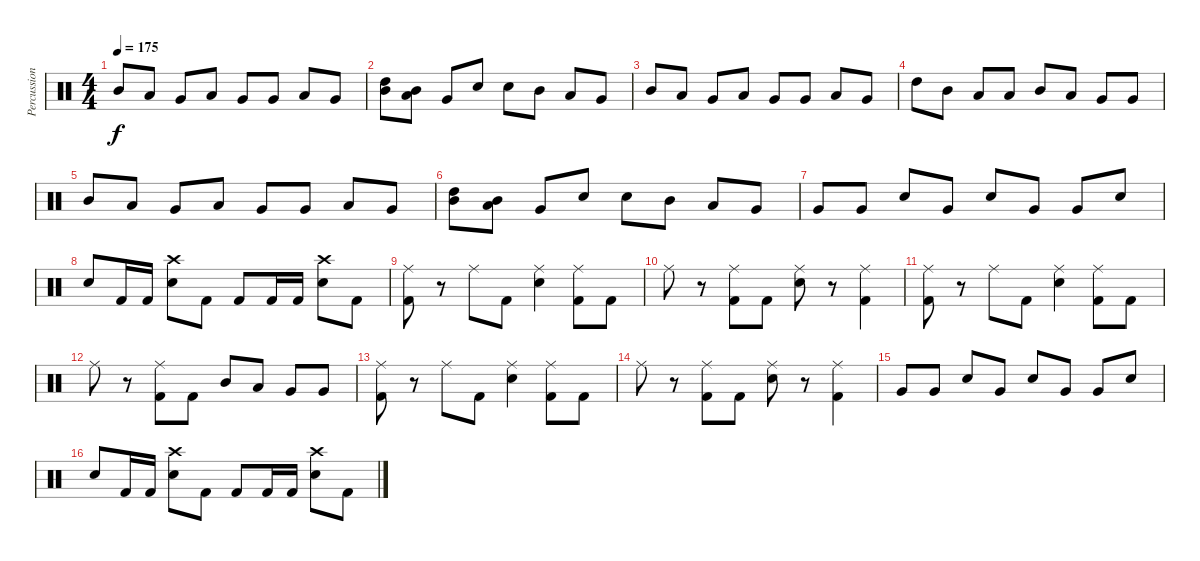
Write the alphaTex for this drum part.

\track ("Percussion" "Percussion") {instrument percussion}
\staff {score}
\articulation defaults
\ts (4 4)
\tempo 175
\clef neutral
\ks c "Mid Tom (hit)".8{dy f} "Low Tom (hit)".8 "Very Low Tom (hit)".8 "Low Tom (hit)".8 "Very Low Tom (hit)".8 "Very Low Tom (hit)".8 "Low Tom (hit)".8 "Very Low Tom (hit)".8
|
("High Tom (hit)" "Mid Tom (hit)").8 ("Mid Tom (hit)" "Low Tom (hit)").8 "Very Low Tom (hit)".8 "Electric Snare (hit)".8 "Electric Snare (hit)".8 "Mid Tom (hit)".8 "Low Tom (hit)".8 "Very Low Tom (hit)".8 |
"Mid Tom (hit)".8 "Low Tom (hit)".8 "Very Low Tom (hit)".8 "Low Tom (hit)".8 "Very Low Tom (hit)".8 "Very Low Tom (hit)".8 "Low Tom (hit)".8 "Very Low Tom (hit)".8 |
"High Tom (hit)".8 "Mid Tom (hit)".8 "Low Tom (hit)".8 "Low Tom (hit)".8 "Mid Tom (hit)".8 "Low Tom (hit)".8 "Very Low Tom (hit)".8 "Very Low Tom (hit)".8 |
"Mid Tom (hit)".8 "Low Tom (hit)".8 "Very Low Tom (hit)".8 "Low Tom (hit)".8 "Very Low Tom (hit)".8 "Very Low Tom (hit)".8 "Low Tom (hit)".8 "Very Low Tom (hit)".8 |
("High Tom (hit)" "Mid Tom (hit)").8 ("Mid Tom (hit)" "Low Tom (hit)").8 "Very Low Tom (hit)".8 "Electric Snare (hit)".8 "Electric Snare (hit)".8 "Mid Tom (hit)".8 "Low Tom (hit)".8 "Very Low Tom (hit)".8 |
"Very Low Tom (hit)".8 "Very Low Tom (hit)".8 "Electric Snare (hit)".8 "Very Low Tom (hit)".8 "Electric Snare (hit)".8 "Very Low Tom (hit)".8 "Very Low Tom (hit)".8 "Electric Snare (hit)".8 |
"Electric Snare (hit)".8 "Kick (hit) 2".16 "Kick (hit) 2".16 ("Crash high (hit)" "Electric Snare (hit)").8 "Kick (hit) 2".8 "Kick (hit) 2".8 "Kick (hit) 2".16 "Kick (hit) 2".16 ("Crash high (hit)" "Electric Snare (hit)").8 "Kick (hit) 2".8 |
("Ride (middle)" "Kick (hit) 2").8 r.8 "Ride (middle)".8 "Kick (hit) 2".8 ("Ride (middle)" "Electric Snare (hit)").4 ("Ride (middle)" "Kick (hit) 2").8 "Kick (hit) 2".8 |
"Ride (middle)".8 r.8 ("Ride (middle)" "Kick (hit) 2").8 "Kick (hit) 2".8 ("Ride (middle)" "Electric Snare (hit)").8 r.8 ("Ride (middle)" "Kick (hit) 2").4 |
("Ride (middle)" "Kick (hit) 2").8 r.8 "Ride (middle)".8 "Kick (hit) 2".8 ("Ride (middle)" "Electric Snare (hit)").4 ("Ride (middle)" "Kick (hit) 2").8 "Kick (hit) 2".8 |
"Ride (middle)".8 r.8 ("Ride (middle)" "Kick (hit) 2").8 "Kick (hit) 2".8 "Mid Tom (hit)".8 "Low Tom (hit)".8 "Very Low Tom (hit)".8 "Very Low Tom (hit)".8 |
("Ride (middle)" "Kick (hit) 2").8 r.8 "Ride (middle)".8 "Kick (hit) 2".8 ("Ride (middle)" "Electric Snare (hit)").4 ("Ride (middle)" "Kick (hit) 2").8 "Kick (hit) 2".8 |
"Ride (middle)".8 r.8 ("Ride (middle)" "Kick (hit) 2").8 "Kick (hit) 2".8 ("Ride (middle)" "Electric Snare (hit)").8 r.8 ("Ride (middle)" "Kick (hit) 2").4 |
"Very Low Tom (hit)".8 "Very Low Tom (hit)".8 "Electric Snare (hit)".8 "Very Low Tom (hit)".8 "Electric Snare (hit)".8 "Very Low Tom (hit)".8 "Very Low Tom (hit)".8 "Electric Snare (hit)".8 |
"Electric Snare (hit)".8 "Kick (hit) 2".16 "Kick (hit) 2".16 ("Crash high (hit)" "Electric Snare (hit)").8 "Kick (hit) 2".8 "Kick (hit) 2".8 "Kick (hit) 2".16 "Kick (hit) 2".16 ("Crash high (hit)" "Electric Snare (hit)").8 "Kick (hit) 2".8
